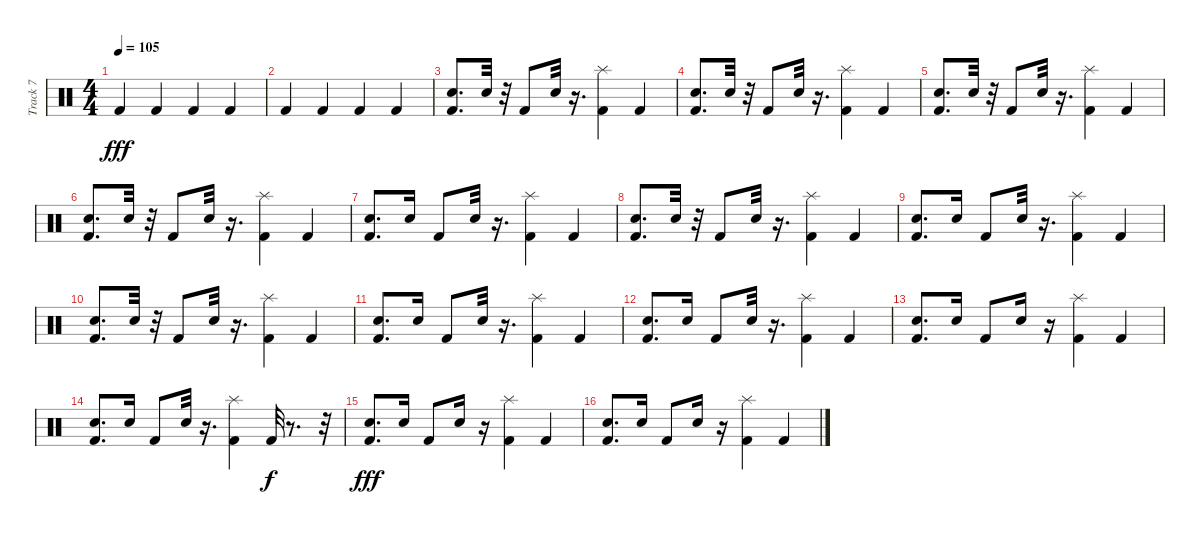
\track ("Track 7" "Track 7") {instrument percussion}
\staff {score}
\articulation defaults
\ts (4 4)
\tempo 105
\clef neutral
\ks c "Kick (hit) 2".4{dy fff} "Kick (hit) 2".4 "Kick (hit) 2".4 "Kick (hit) 2".4
|
"Kick (hit) 2".4 "Kick (hit) 2".4 "Kick (hit) 2".4 "Kick (hit) 2".4 |
("Kick (hit) 2" "Snare (hit) 2").8{d} "Snare (hit) 2".32 r.32 "Kick (hit) 2".8 "Snare (hit) 2".32 r.16{d} ("Kick (hit) 2" "Splash (hit)").4 "Kick (hit) 2".4 |
("Kick (hit) 2" "Snare (hit) 2").8{d} "Snare (hit) 2".32 r.32 "Kick (hit) 2".8 "Snare (hit) 2".32 r.16{d} ("Kick (hit) 2" "Splash (hit)").4 "Kick (hit) 2".4 |
("Snare (hit) 2" "Kick (hit) 2").8{d} "Snare (hit) 2".32 r.32 "Kick (hit) 2".8 "Snare (hit) 2".32 r.16{d} ("Splash (hit)" "Kick (hit) 2").4 "Kick (hit) 2".4 |
("Snare (hit) 2" "Kick (hit) 2").8{d} "Snare (hit) 2".32 r.32 "Kick (hit) 2".8 "Snare (hit) 2".32 r.16{d} ("Splash (hit)" "Kick (hit) 2").4 "Kick (hit) 2".4 |
("Kick (hit) 2" "Snare (hit) 2").8{d} "Snare (hit) 2".16 "Kick (hit) 2".8 "Snare (hit) 2".32 r.16{d} ("Kick (hit) 2" "Splash (hit)").4 "Kick (hit) 2".4 |
("Kick (hit) 2" "Snare (hit) 2").8{d} "Snare (hit) 2".32 r.32 "Kick (hit) 2".8 "Snare (hit) 2".32 r.16{d} ("Kick (hit) 2" "Splash (hit)").4 "Kick (hit) 2".4 |
("Kick (hit) 2" "Snare (hit) 2").8{d} "Snare (hit) 2".16 "Kick (hit) 2".8 "Snare (hit) 2".32 r.16{d} ("Kick (hit) 2" "Splash (hit)").4 "Kick (hit) 2".4 |
("Kick (hit) 2" "Snare (hit) 2").8{d} "Snare (hit) 2".32 r.32 "Kick (hit) 2".8 "Snare (hit) 2".32 r.16{d} ("Kick (hit) 2" "Splash (hit)").4 "Kick (hit) 2".4 |
("Snare (hit) 2" "Kick (hit) 2").8{d} "Snare (hit) 2".16 "Kick (hit) 2".8 "Snare (hit) 2".32 r.16{d} ("Kick (hit) 2" "Splash (hit)").4 "Kick (hit) 2".4 |
("Kick (hit) 2" "Snare (hit) 2").8{d} "Snare (hit) 2".16 "Kick (hit) 2".8 "Snare (hit) 2".32 r.16{d} ("Kick (hit) 2" "Splash (hit)").4 "Kick (hit) 2".4 |
("Kick (hit) 2" "Snare (hit) 2").8{d} "Snare (hit) 2".16 "Kick (hit) 2".8 "Snare (hit) 2".16 r.16 ("Splash (hit)" "Kick (hit) 2").4 "Kick (hit) 2".4 |
("Kick (hit) 2" "Snare (hit) 2").8{d} "Snare (hit) 2".16 "Kick (hit) 2".8 "Snare (hit) 2".32 r.16{d} ("Kick (hit) 2" "Splash (hit)").4 "Kick (hit) 2".32{dy f} r.8{d} r.32 |
("Kick (hit) 2" "Snare (hit) 2").8{d dy fff} "Snare (hit) 2".16 "Kick (hit) 2".8 "Snare (hit) 2".16 r.16 ("Kick (hit) 2" "Splash (hit)").4 "Kick (hit) 2".4 |
("Kick (hit) 2" "Snare (hit) 2").8{d} "Snare (hit) 2".16 "Kick (hit) 2".8 "Snare (hit) 2".16 r.16 ("Kick (hit) 2" "Splash (hit)").4 "Kick (hit) 2".4
